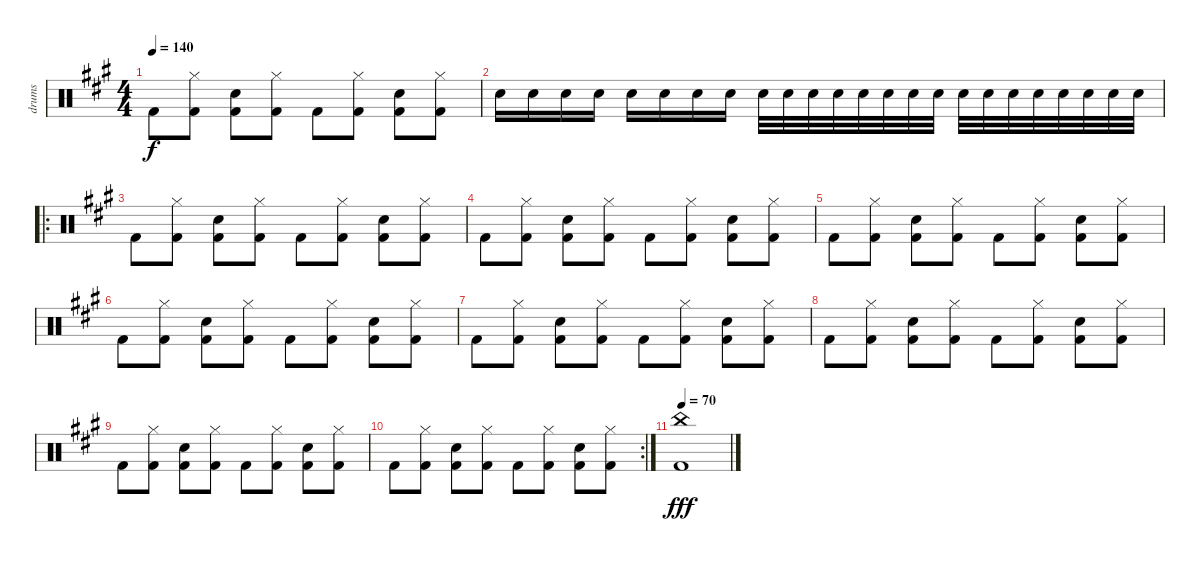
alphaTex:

\track ("drums" "drums") {instrument percussion}
\staff {score}
\articulation defaults
\ts (4 4)
\tempo 140
\clef neutral
\ks f#minor "Kick (hit) 2".8{dy f}
("Hi-Hat (closed)" "Kick (hit) 2").8 ("Electric Snare (hit)" "Kick (hit) 2").8 ("Hi-Hat (closed)" "Kick (hit) 2").8 "Kick (hit) 2".8 ("Hi-Hat (closed)" "Kick (hit) 2").8 ("Electric Snare (hit)" "Kick (hit) 2").8 ("Hi-Hat (closed)" "Kick (hit) 2").8 |
"Electric Snare (hit)".16 "Electric Snare (hit)".16 "Electric Snare (hit)".16 "Electric Snare (hit)".16 "Electric Snare (hit)".16 "Electric Snare (hit)".16 "Electric Snare (hit)".16 "Electric Snare (hit)".16 "Electric Snare (hit)".32 "Electric Snare (hit)".32 "Electric Snare (hit)".32 "Electric Snare (hit)".32 "Electric Snare (hit)".32 "Electric Snare (hit)".32 "Electric Snare (hit)".32 "Electric Snare (hit)".32 "Electric Snare (hit)".32 "Electric Snare (hit)".32 "Electric Snare (hit)".32 "Electric Snare (hit)".32 "Electric Snare (hit)".32 "Electric Snare (hit)".32 "Electric Snare (hit)".32 "Electric Snare (hit)".32 |
\ro "Kick (hit) 2".8
("Hi-Hat (closed)" "Kick (hit) 2").8 ("Electric Snare (hit)" "Kick (hit) 2").8 ("Hi-Hat (closed)" "Kick (hit) 2").8 "Kick (hit) 2".8 ("Hi-Hat (closed)" "Kick (hit) 2").8 ("Electric Snare (hit)" "Kick (hit) 2").8 ("Hi-Hat (closed)" "Kick (hit) 2").8 |
"Kick (hit) 2".8 ("Hi-Hat (closed)" "Kick (hit) 2").8 ("Electric Snare (hit)" "Kick (hit) 2").8 ("Hi-Hat (closed)" "Kick (hit) 2").8 "Kick (hit) 2".8 ("Hi-Hat (closed)" "Kick (hit) 2").8 ("Electric Snare (hit)" "Kick (hit) 2").8 ("Hi-Hat (closed)" "Kick (hit) 2").8 |
"Kick (hit) 2".8 ("Hi-Hat (closed)" "Kick (hit) 2").8 ("Electric Snare (hit)" "Kick (hit) 2").8 ("Hi-Hat (closed)" "Kick (hit) 2").8 "Kick (hit) 2".8 ("Hi-Hat (closed)" "Kick (hit) 2").8 ("Electric Snare (hit)" "Kick (hit) 2").8 ("Hi-Hat (closed)" "Kick (hit) 2").8 |
"Kick (hit) 2".8 ("Hi-Hat (closed)" "Kick (hit) 2").8 ("Electric Snare (hit)" "Kick (hit) 2").8 ("Hi-Hat (closed)" "Kick (hit) 2").8 "Kick (hit) 2".8 ("Hi-Hat (closed)" "Kick (hit) 2").8 ("Electric Snare (hit)" "Kick (hit) 2").8 ("Hi-Hat (closed)" "Kick (hit) 2").8 |
"Kick (hit) 2".8 ("Hi-Hat (closed)" "Kick (hit) 2").8 ("Electric Snare (hit)" "Kick (hit) 2").8 ("Hi-Hat (closed)" "Kick (hit) 2").8 "Kick (hit) 2".8 ("Hi-Hat (closed)" "Kick (hit) 2").8 ("Electric Snare (hit)" "Kick (hit) 2").8 ("Hi-Hat (closed)" "Kick (hit) 2").8 |
"Kick (hit) 2".8 ("Hi-Hat (closed)" "Kick (hit) 2").8 ("Electric Snare (hit)" "Kick (hit) 2").8 ("Hi-Hat (closed)" "Kick (hit) 2").8 "Kick (hit) 2".8 ("Hi-Hat (closed)" "Kick (hit) 2").8 ("Electric Snare (hit)" "Kick (hit) 2").8 ("Hi-Hat (closed)" "Kick (hit) 2").8 |
"Kick (hit) 2".8 ("Hi-Hat (closed)" "Kick (hit) 2").8 ("Electric Snare (hit)" "Kick (hit) 2").8 ("Hi-Hat (closed)" "Kick (hit) 2").8 "Kick (hit) 2".8 ("Hi-Hat (closed)" "Kick (hit) 2").8 ("Electric Snare (hit)" "Kick (hit) 2").8 ("Hi-Hat (closed)" "Kick (hit) 2").8 |
\rc 2 "Kick (hit) 2".8
("Hi-Hat (closed)" "Kick (hit) 2").8 ("Electric Snare (hit)" "Kick (hit) 2").8 ("Hi-Hat (closed)" "Kick (hit) 2").8 "Kick (hit) 2".8 ("Hi-Hat (closed)" "Kick (hit) 2").8 ("Electric Snare (hit)" "Kick (hit) 2").8 ("Hi-Hat (closed)" "Kick (hit) 2").8 |
\tempo 70
("China (hit)" "Kick (hit) 2").1{dy fff}
